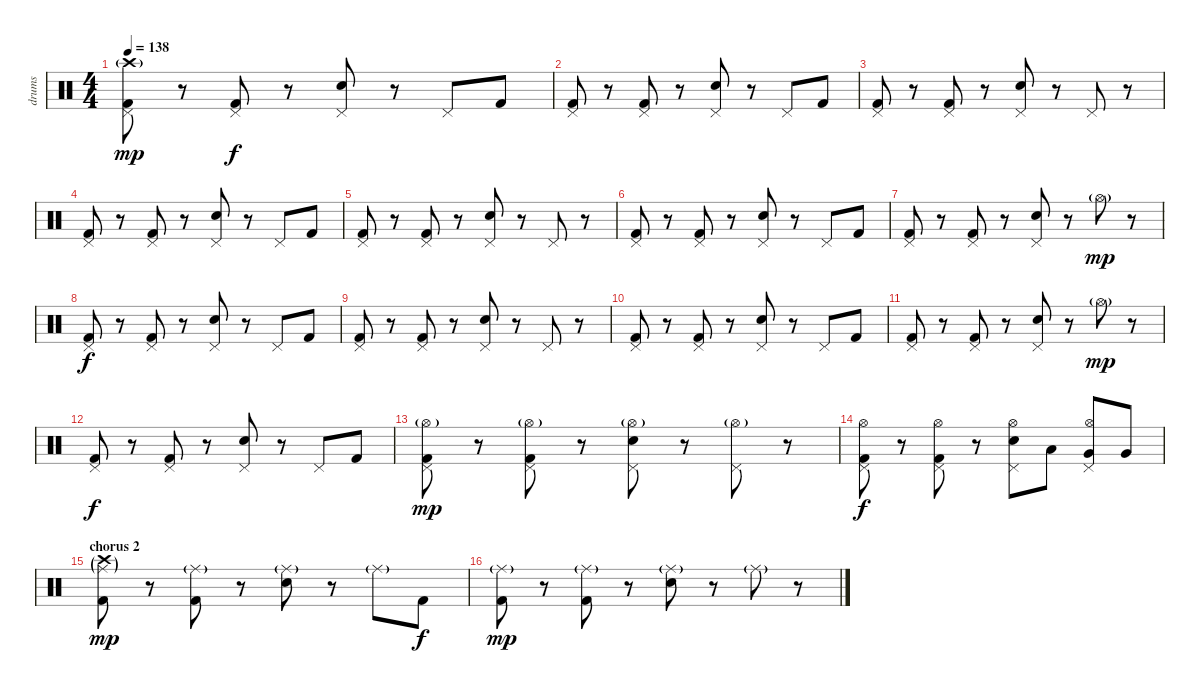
\track ("drums" "drums") {instrument percussion}
\staff {score}
\articulation defaults
\ts (4 4)
\tempo 138
\clef neutral
\ks c
("Kick (hit) 2" "Pedal Hi-Hat (hit)" "Crash high (hit)"{g}).8{dy mp} r.8 ("Kick (hit) 2" "Pedal Hi-Hat (hit)").8{dy f} r.8 ("Electric Snare (hit)" "Pedal Hi-Hat (hit)").8 r.8 "Pedal Hi-Hat (hit)".8 "Kick (hit) 2".8 |
("Kick (hit) 2" "Pedal Hi-Hat (hit)").8 r.8 ("Kick (hit) 2" "Pedal Hi-Hat (hit)").8 r.8 ("Electric Snare (hit)" "Pedal Hi-Hat (hit)").8 r.8 "Pedal Hi-Hat (hit)".8 "Kick (hit) 2".8 |
("Kick (hit) 2" "Pedal Hi-Hat (hit)").8 r.8 ("Kick (hit) 2" "Pedal Hi-Hat (hit)").8 r.8 ("Electric Snare (hit)" "Pedal Hi-Hat (hit)").8 r.8 "Pedal Hi-Hat (hit)".8 r.8 |
("Kick (hit) 2" "Pedal Hi-Hat (hit)").8 r.8 ("Kick (hit) 2" "Pedal Hi-Hat (hit)").8 r.8 ("Electric Snare (hit)" "Pedal Hi-Hat (hit)").8 r.8 "Pedal Hi-Hat (hit)".8 "Kick (hit) 2".8 |
("Kick (hit) 2" "Pedal Hi-Hat (hit)").8 r.8 ("Kick (hit) 2" "Pedal Hi-Hat (hit)").8 r.8 ("Electric Snare (hit)" "Pedal Hi-Hat (hit)").8 r.8 "Pedal Hi-Hat (hit)".8 r.8 |
("Kick (hit) 2" "Pedal Hi-Hat (hit)").8 r.8 ("Kick (hit) 2" "Pedal Hi-Hat (hit)").8 r.8 ("Electric Snare (hit)" "Pedal Hi-Hat (hit)").8 r.8 "Pedal Hi-Hat (hit)".8 "Kick (hit) 2".8 |
("Kick (hit) 2" "Pedal Hi-Hat (hit)").8 r.8 ("Kick (hit) 2" "Pedal Hi-Hat (hit)").8 r.8 ("Electric Snare (hit)" "Pedal Hi-Hat (hit)").8 r.8 "Hi-Hat (open)"{g}.8{dy mp} r.8 |
("Kick (hit) 2" "Pedal Hi-Hat (hit)").8{dy f} r.8 ("Kick (hit) 2" "Pedal Hi-Hat (hit)").8 r.8 ("Electric Snare (hit)" "Pedal Hi-Hat (hit)").8 r.8 "Pedal Hi-Hat (hit)".8 "Kick (hit) 2".8 |
("Kick (hit) 2" "Pedal Hi-Hat (hit)").8 r.8 ("Kick (hit) 2" "Pedal Hi-Hat (hit)").8 r.8 ("Electric Snare (hit)" "Pedal Hi-Hat (hit)").8 r.8 "Pedal Hi-Hat (hit)".8 r.8 |
("Kick (hit) 2" "Pedal Hi-Hat (hit)").8 r.8 ("Kick (hit) 2" "Pedal Hi-Hat (hit)").8 r.8 ("Electric Snare (hit)" "Pedal Hi-Hat (hit)").8 r.8 "Pedal Hi-Hat (hit)".8 "Kick (hit) 2".8 |
("Kick (hit) 2" "Pedal Hi-Hat (hit)").8 r.8 ("Kick (hit) 2" "Pedal Hi-Hat (hit)").8 r.8 ("Electric Snare (hit)" "Pedal Hi-Hat (hit)").8 r.8 "Hi-Hat (open)"{g}.8{dy mp} r.8 |
("Kick (hit) 2" "Pedal Hi-Hat (hit)").8{dy f} r.8 ("Kick (hit) 2" "Pedal Hi-Hat (hit)").8 r.8 ("Electric Snare (hit)" "Pedal Hi-Hat (hit)").8 r.8 "Pedal Hi-Hat (hit)".8 "Kick (hit) 2".8 |
("Kick (hit) 2" "Pedal Hi-Hat (hit)" "Hi-Hat (open)"{g}).8{dy mp} r.8 ("Kick (hit) 2" "Pedal Hi-Hat (hit)" "Hi-Hat (open)"{g}).8 r.8 ("Electric Snare (hit)" "Pedal Hi-Hat (hit)" "Hi-Hat (open)"{g}).8 r.8 ("Pedal Hi-Hat (hit)" "Hi-Hat (open)"{g}).8 r.8 |
("Kick (hit) 2" "Pedal Hi-Hat (hit)" "Hi-Hat (open)").8{dy f} r.8 ("Kick (hit) 2" "Pedal Hi-Hat (hit)" "Hi-Hat (open)").8 r.8 ("Electric Snare (hit)" "Pedal Hi-Hat (hit)" "Hi-Hat (open)").8 "Low Tom (hit)".8 ("Very Low Tom (hit)" "Pedal Hi-Hat (hit)" "Hi-Hat (open)").8 "Very Low Tom (hit)".8 |
\section ("" "chorus 2")
("Kick (hit) 2" "Ride (middle)"{g} "Crash high (hit)"{g}).8{dy mp} r.8 ("Kick (hit) 2" "Ride (middle)"{g}).8 r.8 ("Electric Snare (hit)" "Ride (middle)"{g}).8 r.8 "Ride (middle)"{g}.8 "Kick (hit) 2".8{dy f} |
("Kick (hit) 2" "Ride (middle)"{g}).8{dy mp} r.8 ("Kick (hit) 2" "Ride (middle)"{g}).8 r.8 ("Electric Snare (hit)" "Ride (middle)"{g}).8 r.8 "Ride (middle)"{g}.8 r.8
